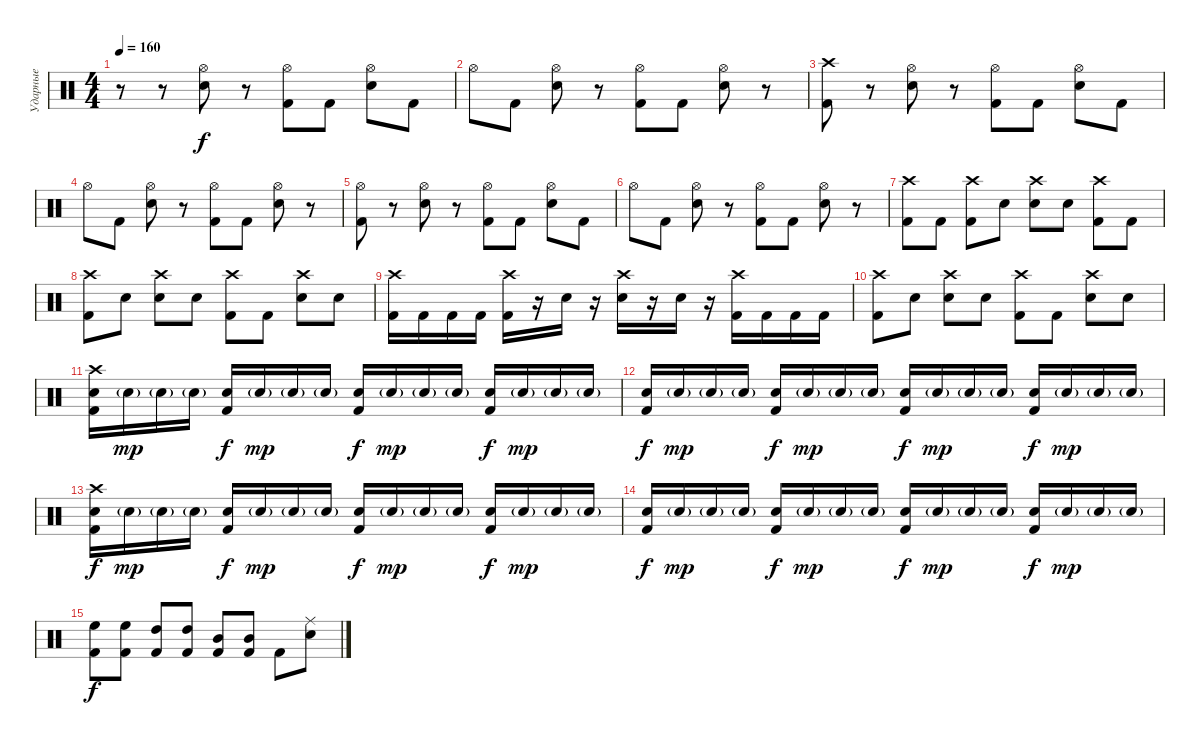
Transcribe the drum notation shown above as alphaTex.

\track ("Ударные" "Ударные") {instrument percussion}
\staff {score}
\articulation defaults
\ts (4 4)
\tempo 160
\clef neutral
\ks c
r.8{dy f} r.8 ("Hi-Hat (open)" "Snare (hit) 2").8 r.8 ("Hi-Hat (open)" "Kick (hit) 2").8 "Kick (hit) 2".8 ("Hi-Hat (open)" "Snare (hit) 2").8 "Kick (hit) 2".8 |
"Hi-Hat (open)".8 "Kick (hit) 2".8 ("Hi-Hat (open)" "Snare (hit) 2").8 r.8 ("Hi-Hat (open)" "Kick (hit) 2").8 "Kick (hit) 2".8 ("Hi-Hat (open)" "Snare (hit) 2").8 r.8 |
("Crash high (hit)" "Kick (hit) 2").8 r.8 ("Hi-Hat (open)" "Snare (hit) 2").8 r.8 ("Hi-Hat (open)" "Kick (hit) 2").8 "Kick (hit) 2".8 ("Hi-Hat (open)" "Snare (hit) 2").8 "Kick (hit) 2".8 |
"Hi-Hat (open)".8 "Kick (hit) 2".8 ("Hi-Hat (open)" "Snare (hit) 2").8 r.8 ("Hi-Hat (open)" "Kick (hit) 2").8 "Kick (hit) 2".8 ("Hi-Hat (open)" "Snare (hit) 2").8 r.8 |
("Hi-Hat (open)" "Kick (hit) 2").8 r.8 ("Hi-Hat (open)" "Snare (hit) 2").8 r.8 ("Hi-Hat (open)" "Kick (hit) 2").8 "Kick (hit) 2".8 ("Hi-Hat (open)" "Snare (hit) 2").8 "Kick (hit) 2".8 |
"Hi-Hat (open)".8 "Kick (hit) 2".8 ("Hi-Hat (open)" "Snare (hit) 2").8 r.8 ("Hi-Hat (open)" "Kick (hit) 2").8 "Kick (hit) 2".8 ("Hi-Hat (open)" "Snare (hit) 2").8 r.8 |
("Crash high (hit)" "Kick (hit) 2").8 "Kick (hit) 2".8 ("Crash high (hit)" "Kick (hit) 2").8 "Snare (hit) 2".8 ("Crash high (hit)" "Snare (hit) 2").8 "Snare (hit) 2".8 ("Crash high (hit)" "Kick (hit) 2").8 "Kick (hit) 2".8 |
("Crash high (hit)" "Kick (hit) 2").8 "Snare (hit) 2".8 ("Crash high (hit)" "Snare (hit) 2").8 "Snare (hit) 2".8 ("Crash high (hit)" "Kick (hit) 2").8 "Kick (hit) 2".8 ("Crash high (hit)" "Snare (hit) 2").8 "Snare (hit) 2".8 |
("Crash high (hit)" "Kick (hit) 2").16 "Kick (hit) 2".16 "Kick (hit) 2".16 "Kick (hit) 2".16 ("Crash high (hit)" "Kick (hit) 2").16 r.16 "Snare (hit) 2".16 r.16 ("Crash high (hit)" "Snare (hit) 2").16 r.16 "Snare (hit) 2".16 r.16 ("Crash high (hit)" "Kick (hit) 2").16 "Kick (hit) 2".16 "Kick (hit) 2".16 "Kick (hit) 2".16 |
("Crash high (hit)" "Kick (hit) 2").8 "Snare (hit) 2".8 ("Crash high (hit)" "Snare (hit) 2").8 "Snare (hit) 2".8 ("Crash high (hit)" "Kick (hit) 2").8 "Kick (hit) 2".8 ("Crash high (hit)" "Snare (hit) 2").8 "Snare (hit) 2".8 |
("Crash high (hit)" "Snare (hit) 2" "Kick (hit) 2").16 "Snare (hit) 2"{g}.16{dy mp} "Snare (hit) 2"{g}.16 "Snare (hit) 2"{g}.16 ("Snare (hit) 2" "Kick (hit) 2").16{dy f} "Snare (hit) 2"{g}.16{dy mp} "Snare (hit) 2"{g}.16 "Snare (hit) 2"{g}.16 ("Snare (hit) 2" "Kick (hit) 2").16{dy f} "Snare (hit) 2"{g}.16{dy mp} "Snare (hit) 2"{g}.16 "Snare (hit) 2"{g}.16 ("Snare (hit) 2" "Kick (hit) 2").16{dy f} "Snare (hit) 2"{g}.16{dy mp} "Snare (hit) 2"{g}.16 "Snare (hit) 2"{g}.16 |
("Snare (hit) 2" "Kick (hit) 2").16{dy f} "Snare (hit) 2"{g}.16{dy mp} "Snare (hit) 2"{g}.16 "Snare (hit) 2"{g}.16 ("Snare (hit) 2" "Kick (hit) 2").16{dy f} "Snare (hit) 2"{g}.16{dy mp} "Snare (hit) 2"{g}.16 "Snare (hit) 2"{g}.16 ("Snare (hit) 2" "Kick (hit) 2").16{dy f} "Snare (hit) 2"{g}.16{dy mp} "Snare (hit) 2"{g}.16 "Snare (hit) 2"{g}.16 ("Snare (hit) 2" "Kick (hit) 2").16{dy f} "Snare (hit) 2"{g}.16{dy mp} "Snare (hit) 2"{g}.16 "Snare (hit) 2"{g}.16 |
("Crash high (hit)" "Snare (hit) 2" "Kick (hit) 2").16{dy f} "Snare (hit) 2"{g}.16{dy mp} "Snare (hit) 2"{g}.16 "Snare (hit) 2"{g}.16 ("Snare (hit) 2" "Kick (hit) 2").16{dy f} "Snare (hit) 2"{g}.16{dy mp} "Snare (hit) 2"{g}.16 "Snare (hit) 2"{g}.16 ("Snare (hit) 2" "Kick (hit) 2").16{dy f} "Snare (hit) 2"{g}.16{dy mp} "Snare (hit) 2"{g}.16 "Snare (hit) 2"{g}.16 ("Snare (hit) 2" "Kick (hit) 2").16{dy f} "Snare (hit) 2"{g}.16{dy mp} "Snare (hit) 2"{g}.16 "Snare (hit) 2"{g}.16 |
("Snare (hit) 2" "Kick (hit) 2").16{dy f} "Snare (hit) 2"{g}.16{dy mp} "Snare (hit) 2"{g}.16 "Snare (hit) 2"{g}.16 ("Snare (hit) 2" "Kick (hit) 2").16{dy f} "Snare (hit) 2"{g}.16{dy mp} "Snare (hit) 2"{g}.16 "Snare (hit) 2"{g}.16 ("Snare (hit) 2" "Kick (hit) 2").16{dy f} "Snare (hit) 2"{g}.16{dy mp} "Snare (hit) 2"{g}.16 "Snare (hit) 2"{g}.16 ("Snare (hit) 2" "Kick (hit) 2").16{dy f} "Snare (hit) 2"{g}.16{dy mp} "Snare (hit) 2"{g}.16 "Snare (hit) 2"{g}.16 |
("High Floor Tom (hit)" "Kick (hit) 2").8{dy f} ("High Floor Tom (hit)" "Kick (hit) 2").8 ("High Tom (hit)" "Kick (hit) 2").8 ("High Tom (hit)" "Kick (hit) 2").8 ("Mid Tom (hit)" "Kick (hit) 2").8 ("Mid Tom (hit)" "Kick (hit) 2").8 "Kick (hit) 2".8 ("Ride (middle)" "Snare (hit) 2").8
